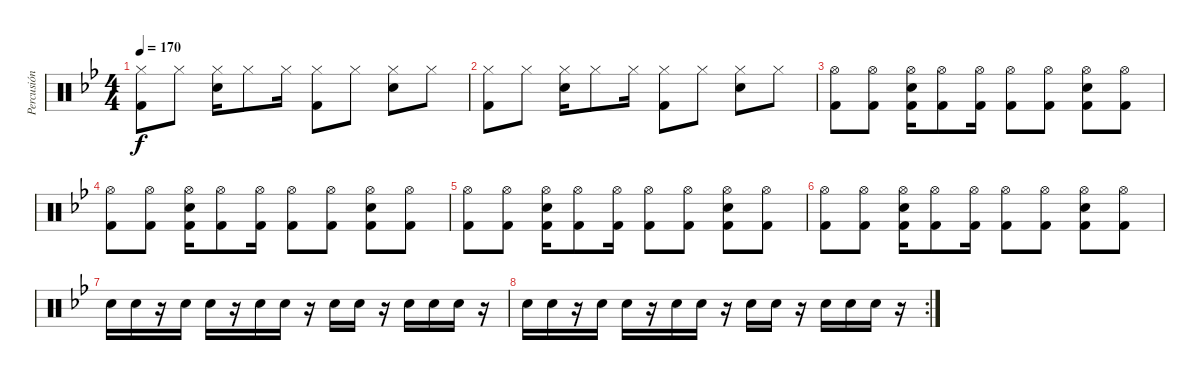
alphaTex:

\track ("Percusión" "Percusión") {instrument percussion}
\staff {score}
\articulation defaults
\ts (4 4)
\tempo 170
\clef neutral
\ks bb
("Hi-Hat (closed)" "Kick (hit) 2").8{dy f} "Hi-Hat (closed)".8 ("Electric Snare (hit)" "Hi-Hat (closed)").16 "Hi-Hat (closed)".8 "Hi-Hat (closed)".16 ("Hi-Hat (closed)" "Kick (hit) 2").8 "Hi-Hat (closed)".8 ("Electric Snare (hit)" "Hi-Hat (closed)").8 "Hi-Hat (closed)".8 |
("Hi-Hat (closed)" "Kick (hit) 2").8 "Hi-Hat (closed)".8 ("Electric Snare (hit)" "Hi-Hat (closed)").16 "Hi-Hat (closed)".8 "Hi-Hat (closed)".16 ("Hi-Hat (closed)" "Kick (hit) 2").8 "Hi-Hat (closed)".8 ("Electric Snare (hit)" "Hi-Hat (closed)").8 "Hi-Hat (closed)".8 |
("Hi-Hat (open)" "Kick (hit) 2").8 ("Hi-Hat (open)" "Kick (hit) 2").8 ("Electric Snare (hit)" "Hi-Hat (open)" "Kick (hit) 2").16 ("Hi-Hat (open)" "Kick (hit) 2").8 ("Hi-Hat (open)" "Kick (hit) 2").16 ("Hi-Hat (open)" "Kick (hit) 2").8 ("Hi-Hat (open)" "Kick (hit) 2").8 ("Electric Snare (hit)" "Hi-Hat (open)" "Kick (hit) 2").8 ("Hi-Hat (open)" "Kick (hit) 2").8 |
("Hi-Hat (open)" "Kick (hit) 2").8 ("Hi-Hat (open)" "Kick (hit) 2").8 ("Electric Snare (hit)" "Hi-Hat (open)" "Kick (hit) 2").16 ("Hi-Hat (open)" "Kick (hit) 2").8 ("Hi-Hat (open)" "Kick (hit) 2").16 ("Hi-Hat (open)" "Kick (hit) 2").8 ("Hi-Hat (open)" "Kick (hit) 2").8 ("Electric Snare (hit)" "Hi-Hat (open)" "Kick (hit) 2").8 ("Hi-Hat (open)" "Kick (hit) 2").8 |
("Hi-Hat (open)" "Kick (hit) 2").8 ("Hi-Hat (open)" "Kick (hit) 2").8 ("Electric Snare (hit)" "Hi-Hat (open)" "Kick (hit) 2").16 ("Hi-Hat (open)" "Kick (hit) 2").8 ("Hi-Hat (open)" "Kick (hit) 2").16 ("Hi-Hat (open)" "Kick (hit) 2").8 ("Hi-Hat (open)" "Kick (hit) 2").8 ("Electric Snare (hit)" "Hi-Hat (open)" "Kick (hit) 2").8 ("Hi-Hat (open)" "Kick (hit) 2").8 |
("Hi-Hat (open)" "Kick (hit) 2").8 ("Hi-Hat (open)" "Kick (hit) 2").8 ("Electric Snare (hit)" "Hi-Hat (open)" "Kick (hit) 2").16 ("Hi-Hat (open)" "Kick (hit) 2").8 ("Hi-Hat (open)" "Kick (hit) 2").16 ("Hi-Hat (open)" "Kick (hit) 2").8 ("Hi-Hat (open)" "Kick (hit) 2").8 ("Electric Snare (hit)" "Hi-Hat (open)" "Kick (hit) 2").8 ("Hi-Hat (open)" "Kick (hit) 2").8 |
"Electric Snare (hit)".16 "Electric Snare (hit)".16 r.16 "Electric Snare (hit)".16 "Electric Snare (hit)".16 r.16 "Electric Snare (hit)".16 "Electric Snare (hit)".16 r.16 "Electric Snare (hit)".16 "Electric Snare (hit)".16 r.16 "Electric Snare (hit)".16 "Electric Snare (hit)".16 "Electric Snare (hit)".16 r.16 |
\rc 2 "Electric Snare (hit)".16 "Electric Snare (hit)".16
r.16 "Electric Snare (hit)".16 "Electric Snare (hit)".16 r.16 "Electric Snare (hit)".16 "Electric Snare (hit)".16 r.16 "Electric Snare (hit)".16 "Electric Snare (hit)".16 r.16 "Electric Snare (hit)".16 "Electric Snare (hit)".16 "Electric Snare (hit)".16 r.16
